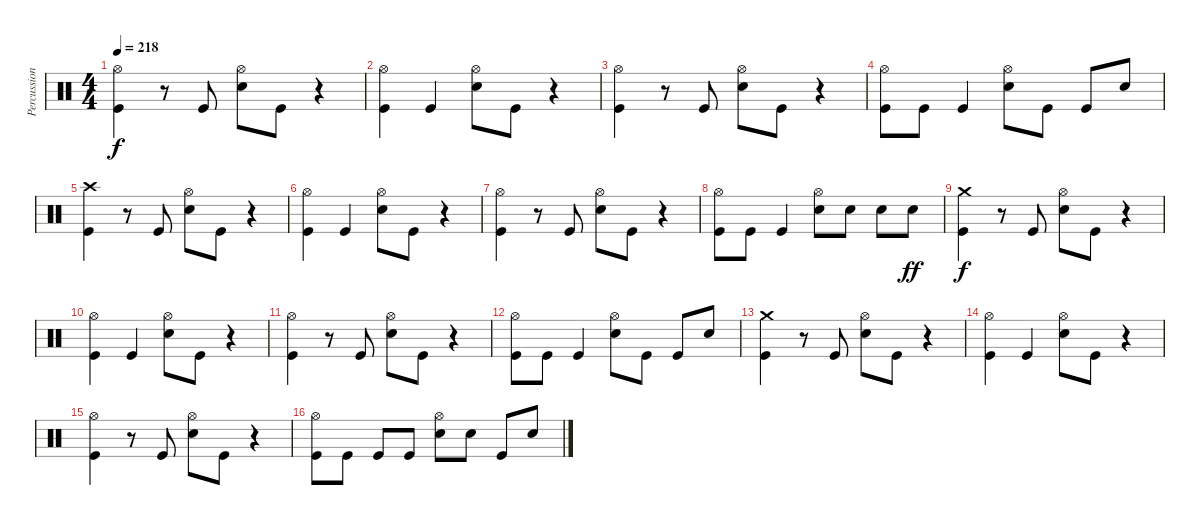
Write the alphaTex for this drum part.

\track ("Percussion" "Percussion") {instrument percussion}
\staff {score}
\articulation defaults
\ts (4 4)
\tempo 218
\clef neutral
\ks c
("Hi-Hat (open)" "Kick (hit)").4{dy f} r.8 "Kick (hit)".8 ("Hi-Hat (open)" "Electric Snare (hit)").8 "Kick (hit)".8 r.4 |
("Hi-Hat (open)" "Kick (hit)").4 "Kick (hit)".4 ("Hi-Hat (open)" "Electric Snare (hit)").8 "Kick (hit)".8 r.4 |
("Hi-Hat (open)" "Kick (hit)").4 r.8 "Kick (hit)".8 ("Hi-Hat (open)" "Electric Snare (hit)").8 "Kick (hit)".8 r.4 |
("Hi-Hat (open)" "Kick (hit)").8 "Kick (hit)".8 "Kick (hit)".4 ("Hi-Hat (open)" "Electric Snare (hit)").8 "Kick (hit)".8 "Kick (hit)".8 "Electric Snare (hit)".8 |
("Crash high (hit)" "Kick (hit)").4 r.8 "Kick (hit)".8 ("Hi-Hat (open)" "Electric Snare (hit)").8 "Kick (hit)".8 r.4 |
("Hi-Hat (open)" "Kick (hit)").4 "Kick (hit)".4 ("Hi-Hat (open)" "Electric Snare (hit)").8 "Kick (hit)".8 r.4 |
("Hi-Hat (open)" "Kick (hit)").4 r.8 "Kick (hit)".8 ("Hi-Hat (open)" "Electric Snare (hit)").8 "Kick (hit)".8 r.4 |
("Hi-Hat (open)" "Kick (hit)").8 "Kick (hit)".8 "Kick (hit)".4 ("Hi-Hat (open)" "Electric Snare (hit)").8 "Electric Snare (hit)".8 "Electric Snare (hit)".8 "Electric Snare (hit)".8{dy ff} |
("Crash medium (hit)" "Kick (hit)").4{dy f} r.8 "Kick (hit)".8 ("Hi-Hat (open)" "Electric Snare (hit)").8 "Kick (hit)".8 r.4 |
("Hi-Hat (open)" "Kick (hit)").4 "Kick (hit)".4 ("Hi-Hat (open)" "Electric Snare (hit)").8 "Kick (hit)".8 r.4 |
("Hi-Hat (open)" "Kick (hit)").4 r.8 "Kick (hit)".8 ("Hi-Hat (open)" "Electric Snare (hit)").8 "Kick (hit)".8 r.4 |
("Hi-Hat (open)" "Kick (hit)").8 "Kick (hit)".8 "Kick (hit)".4 ("Hi-Hat (open)" "Electric Snare (hit)").8 "Kick (hit)".8 "Kick (hit)".8 "Electric Snare (hit)".8 |
("Crash medium (hit)" "Kick (hit)").4 r.8 "Kick (hit)".8 ("Hi-Hat (open)" "Electric Snare (hit)").8 "Kick (hit)".8 r.4 |
("Hi-Hat (open)" "Kick (hit)").4 "Kick (hit)".4 ("Hi-Hat (open)" "Electric Snare (hit)").8 "Kick (hit)".8 r.4 |
("Hi-Hat (open)" "Kick (hit)").4 r.8 "Kick (hit)".8 ("Hi-Hat (open)" "Electric Snare (hit)").8 "Kick (hit)".8 r.4 |
("Hi-Hat (open)" "Kick (hit)").8 "Kick (hit)".8 "Kick (hit)".8 "Kick (hit)".8 ("Hi-Hat (open)" "Electric Snare (hit)").8 "Electric Snare (hit)".8 "Kick (hit)".8 "Electric Snare (hit)".8
